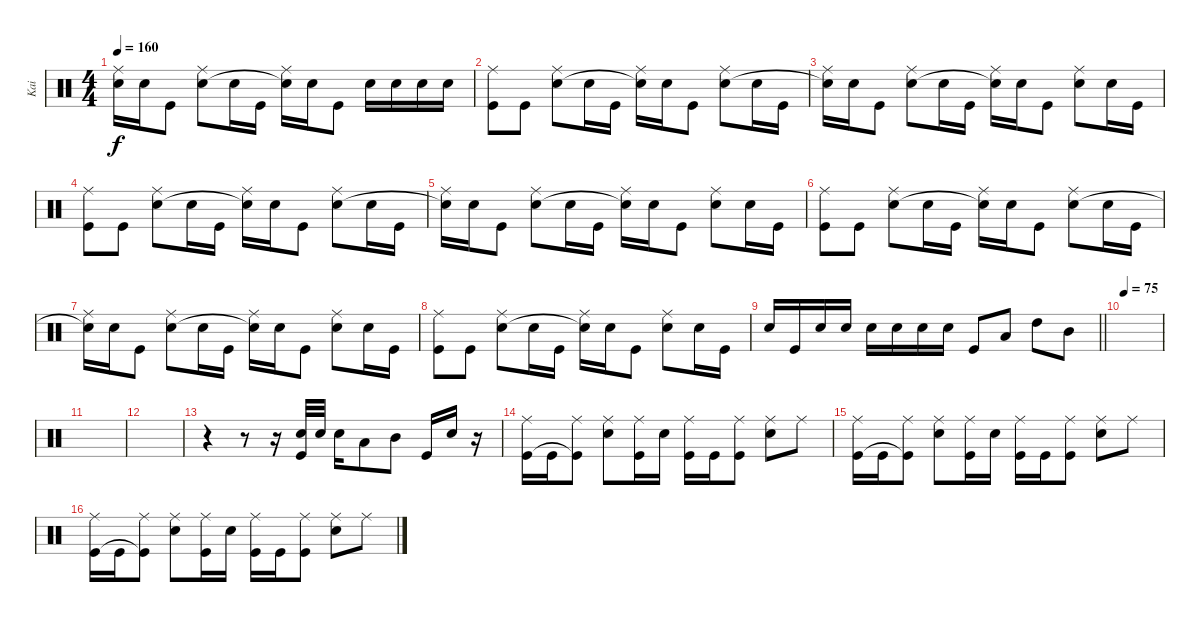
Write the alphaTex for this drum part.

\track ("Kai" "Kai") {instrument percussion}
\staff {score}
\articulation defaults
\ts (4 4)
\tempo 160
\clef neutral
\ks c
("Ride (middle)" "Snare (hit)"{t}).16{dy f} "Snare (hit) 2".16 "Kick (hit)".8 ("Ride (middle)" "Snare (hit) 2").8 "Snare (hit) 2".16 "Kick (hit)".16 ("Ride (middle)" "Snare (hit)"{t}).16 "Snare (hit) 2".16 "Kick (hit)".8 "Snare (hit) 2".16 "Snare (hit) 2".16 "Snare (hit) 2".16 "Snare (hit) 2".16 |
("Ride (middle)" "Kick (hit)").8 "Kick (hit)".8 ("Ride (middle)" "Snare (hit) 2").8 "Snare (hit) 2".16 "Kick (hit)".16 ("Ride (middle)" "Snare (hit)"{t}).16 "Snare (hit) 2".16 "Kick (hit)".8 ("Ride (middle)" "Snare (hit) 2").8 "Snare (hit) 2".16 "Kick (hit)".16 |
("Ride (middle)" "Snare (hit)"{t}).16 "Snare (hit) 2".16 "Kick (hit)".8 ("Ride (middle)" "Snare (hit) 2").8 "Snare (hit) 2".16 "Kick (hit)".16 ("Ride (middle)" "Snare (hit)"{t}).16 "Snare (hit) 2".16 "Kick (hit)".8 ("Ride (middle)" "Snare (hit) 2").8 "Snare (hit) 2".16 "Kick (hit)".16 |
("Ride (middle)" "Kick (hit)").8 "Kick (hit)".8 ("Ride (middle)" "Snare (hit) 2").8 "Snare (hit) 2".16 "Kick (hit)".16 ("Ride (middle)" "Snare (hit)"{t}).16 "Snare (hit) 2".16 "Kick (hit)".8 ("Ride (middle)" "Snare (hit) 2").8 "Snare (hit) 2".16 "Kick (hit)".16 |
("Ride (middle)" "Snare (hit)"{t}).16 "Snare (hit) 2".16 "Kick (hit)".8 ("Ride (middle)" "Snare (hit) 2").8 "Snare (hit) 2".16 "Kick (hit)".16 ("Ride (middle)" "Snare (hit)"{t}).16 "Snare (hit) 2".16 "Kick (hit)".8 ("Ride (middle)" "Snare (hit) 2").8 "Snare (hit) 2".16 "Kick (hit)".16 |
("Ride (middle)" "Kick (hit)").8 "Kick (hit)".8 ("Ride (middle)" "Snare (hit) 2").8 "Snare (hit) 2".16 "Kick (hit)".16 ("Ride (middle)" "Snare (hit)"{t}).16 "Snare (hit) 2".16 "Kick (hit)".8 ("Ride (middle)" "Snare (hit) 2").8 "Snare (hit) 2".16 "Kick (hit)".16 |
("Ride (middle)" "Snare (hit)"{t}).16 "Snare (hit) 2".16 "Kick (hit)".8 ("Ride (middle)" "Snare (hit) 2").8 "Snare (hit) 2".16 "Kick (hit)".16 ("Ride (middle)" "Snare (hit)"{t}).16 "Snare (hit) 2".16 "Kick (hit)".8 ("Ride (middle)" "Snare (hit) 2").8 "Snare (hit) 2".16 "Kick (hit)".16 |
("Ride (middle)" "Kick (hit)").8 "Kick (hit)".8 ("Ride (middle)" "Snare (hit) 2").8 "Snare (hit) 2".16 "Kick (hit)".16 ("Ride (middle)" "Snare (hit)"{t}).16 "Snare (hit) 2".16 "Kick (hit)".8 ("Ride (middle)" "Snare (hit) 2").8 "Snare (hit) 2".16 "Kick (hit)".16 |
\barLineRight lightlight "Snare (hit) 2".16 "Kick (hit)".16 "Snare (hit) 2".16 "Snare (hit) 2".16 "Snare (hit) 2".16 "Snare (hit) 2".16 "Snare (hit) 2".16 "Snare (hit) 2".16 "Kick (hit)".8 "Low Tom (hit)".8 "High Tom (hit)".8 "Mid Tom (hit)".8
|
\tempo 75
|
|
|
r.4 r.8 r.16 ("Snare (hit) 2" "Kick (hit)").32 "Snare (hit) 2".32 "Snare (hit) 2".16 "Low Tom (hit)".8 "Mid Tom (hit)".8 "Kick (hit)".16 "Snare (hit) 2".16 r.16 |
("Ride (middle)" "Kick (hit)").16 "Kick (hit)".16 ("Ride (middle)" "Kick (hit)"{t}).8 ("Ride (middle)" "Snare (hit) 2").8 ("Ride (middle)" "Kick (hit)").16 "Snare (hit) 2".16 ("Ride (middle)" "Kick (hit)").16 "Kick (hit)".16 ("Ride (middle)" "Kick (hit)").8 ("Ride (middle)" "Snare (hit) 2").8 "Ride (middle)".8 |
("Ride (middle)" "Kick (hit)").16 "Kick (hit)".16 ("Ride (middle)" "Kick (hit)"{t}).8 ("Ride (middle)" "Snare (hit) 2").8 ("Ride (middle)" "Kick (hit)").16 "Snare (hit) 2".16 ("Ride (middle)" "Kick (hit)").16 "Kick (hit)".16 ("Ride (middle)" "Kick (hit)").8 ("Ride (middle)" "Snare (hit) 2").8 "Ride (middle)".8 |
("Ride (middle)" "Kick (hit)").16 "Kick (hit)".16 ("Ride (middle)" "Kick (hit)"{t}).8 ("Ride (middle)" "Snare (hit) 2").8 ("Ride (middle)" "Kick (hit)").16 "Snare (hit) 2".16 ("Ride (middle)" "Kick (hit)").16 "Kick (hit)".16 ("Ride (middle)" "Kick (hit)").8 ("Ride (middle)" "Snare (hit) 2").8 "Ride (middle)".8
